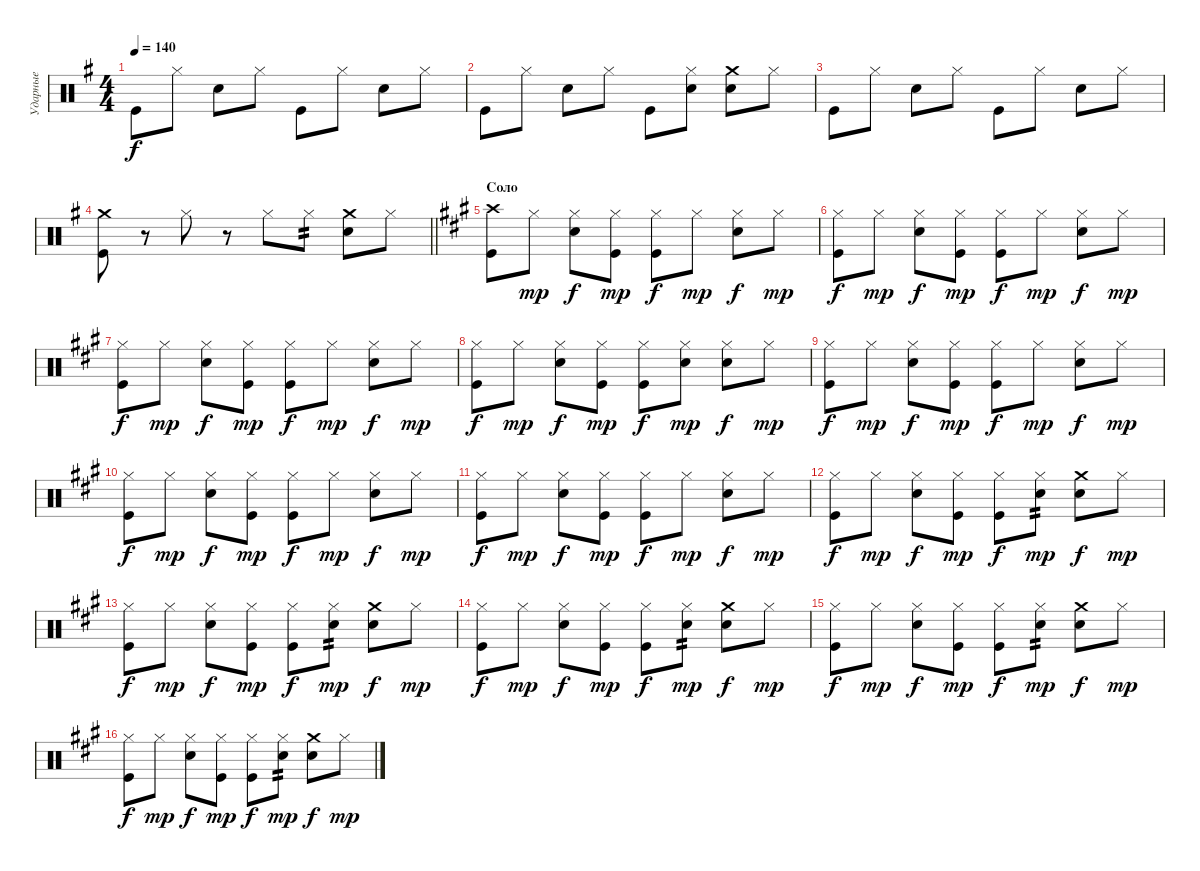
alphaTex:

\track ("Ударные" "Ударные") {instrument percussion}
\staff {score}
\articulation defaults
\ts (4 4)
\tempo 140
\clef neutral
\ks eminor "Kick (hit)".8{dy f} "Hi-Hat (closed)".8 "Snare (hit) 2".8 "Hi-Hat (closed)".8 "Kick (hit)".8 "Hi-Hat (closed)".8 "Snare (hit) 2".8 "Hi-Hat (closed)".8
|
"Kick (hit)".8 "Hi-Hat (closed)".8 "Snare (hit) 2".8 "Hi-Hat (closed)".8 "Kick (hit)".8 ("Hi-Hat (closed)" "Snare (hit) 2").8 ("Crash medium (hit)" "Snare (hit) 2").8 "Hi-Hat (closed)".8 |
"Kick (hit)".8 "Hi-Hat (closed)".8 "Snare (hit) 2".8 "Hi-Hat (closed)".8 "Kick (hit)".8 "Hi-Hat (closed)".8 "Snare (hit) 2".8 "Hi-Hat (closed)".8 |
\barLineRight lightlight
("Crash medium (hit)" "Kick (hit)").8 r.8 "Hi-Hat (closed)".8 r.8 "Hi-Hat (closed)".8 "Hi-Hat (closed)".8{tp 2} ("Crash medium (hit)" "Snare (hit) 2").8 "Hi-Hat (closed)".8 |
\section ("" "Соло")
\ks a
("Crash high (hit)" "Kick (hit)").8 "Hi-Hat (closed)".8{dy mp} ("Hi-Hat (closed)" "Snare (hit) 2").8{dy f} ("Hi-Hat (closed)" "Kick (hit)").8{dy mp} ("Hi-Hat (closed)" "Kick (hit)").8{dy f} "Hi-Hat (closed)".8{dy mp} ("Hi-Hat (closed)" "Snare (hit) 2").8{dy f} "Hi-Hat (closed)".8{dy mp} |
("Hi-Hat (closed)" "Kick (hit)").8{dy f} "Hi-Hat (closed)".8{dy mp} ("Hi-Hat (closed)" "Snare (hit) 2").8{dy f} ("Hi-Hat (closed)" "Kick (hit)").8{dy mp} ("Hi-Hat (closed)" "Kick (hit)").8{dy f} "Hi-Hat (closed)".8{dy mp} ("Hi-Hat (closed)" "Snare (hit) 2").8{dy f} "Hi-Hat (closed)".8{dy mp} |
("Hi-Hat (closed)" "Kick (hit)").8{dy f} "Hi-Hat (closed)".8{dy mp} ("Hi-Hat (closed)" "Snare (hit) 2").8{dy f} ("Hi-Hat (closed)" "Kick (hit)").8{dy mp} ("Hi-Hat (closed)" "Kick (hit)").8{dy f} "Hi-Hat (closed)".8{dy mp} ("Hi-Hat (closed)" "Snare (hit) 2").8{dy f} "Hi-Hat (closed)".8{dy mp} |
("Hi-Hat (closed)" "Kick (hit)").8{dy f} "Hi-Hat (closed)".8{dy mp} ("Hi-Hat (closed)" "Snare (hit) 2").8{dy f} ("Hi-Hat (closed)" "Kick (hit)").8{dy mp} ("Hi-Hat (closed)" "Kick (hit)").8{dy f} ("Hi-Hat (closed)" "Snare (hit) 2").8{dy mp} ("Hi-Hat (closed)" "Snare (hit) 2").8{dy f} "Hi-Hat (closed)".8{dy mp} |
("Hi-Hat (closed)" "Kick (hit)").8{dy f} "Hi-Hat (closed)".8{dy mp} ("Hi-Hat (closed)" "Snare (hit) 2").8{dy f} ("Hi-Hat (closed)" "Kick (hit)").8{dy mp} ("Hi-Hat (closed)" "Kick (hit)").8{dy f} "Hi-Hat (closed)".8{dy mp} ("Hi-Hat (closed)" "Snare (hit) 2").8{dy f} "Hi-Hat (closed)".8{dy mp} |
("Hi-Hat (closed)" "Kick (hit)").8{dy f} "Hi-Hat (closed)".8{dy mp} ("Hi-Hat (closed)" "Snare (hit) 2").8{dy f} ("Hi-Hat (closed)" "Kick (hit)").8{dy mp} ("Hi-Hat (closed)" "Kick (hit)").8{dy f} "Hi-Hat (closed)".8{dy mp} ("Hi-Hat (closed)" "Snare (hit) 2").8{dy f} "Hi-Hat (closed)".8{dy mp} |
("Hi-Hat (closed)" "Kick (hit)").8{dy f} "Hi-Hat (closed)".8{dy mp} ("Hi-Hat (closed)" "Snare (hit) 2").8{dy f} ("Hi-Hat (closed)" "Kick (hit)").8{dy mp} ("Hi-Hat (closed)" "Kick (hit)").8{dy f} "Hi-Hat (closed)".8{dy mp} ("Hi-Hat (closed)" "Snare (hit) 2").8{dy f} "Hi-Hat (closed)".8{dy mp} |
("Hi-Hat (closed)" "Kick (hit)").8{dy f} "Hi-Hat (closed)".8{dy mp} ("Hi-Hat (closed)" "Snare (hit) 2").8{dy f} ("Hi-Hat (closed)" "Kick (hit)").8{dy mp} ("Hi-Hat (closed)" "Kick (hit)").8{dy f} ("Hi-Hat (closed)" "Snare (hit) 2").8{tp 2 dy mp} ("Crash medium (hit)" "Snare (hit) 2").8{dy f} "Hi-Hat (closed)".8{dy mp} |
("Hi-Hat (closed)" "Kick (hit)").8{dy f} "Hi-Hat (closed)".8{dy mp} ("Hi-Hat (closed)" "Snare (hit) 2").8{dy f} ("Hi-Hat (closed)" "Kick (hit)").8{dy mp} ("Hi-Hat (closed)" "Kick (hit)").8{dy f} ("Hi-Hat (closed)" "Snare (hit) 2").8{tp 2 dy mp} ("Crash medium (hit)" "Snare (hit) 2").8{dy f} "Hi-Hat (closed)".8{dy mp} |
("Hi-Hat (closed)" "Kick (hit)").8{dy f} "Hi-Hat (closed)".8{dy mp} ("Hi-Hat (closed)" "Snare (hit) 2").8{dy f} ("Hi-Hat (closed)" "Kick (hit)").8{dy mp} ("Hi-Hat (closed)" "Kick (hit)").8{dy f} ("Hi-Hat (closed)" "Snare (hit) 2").8{tp 2 dy mp} ("Crash medium (hit)" "Snare (hit) 2").8{dy f} "Hi-Hat (closed)".8{dy mp} |
("Hi-Hat (closed)" "Kick (hit)").8{dy f} "Hi-Hat (closed)".8{dy mp} ("Hi-Hat (closed)" "Snare (hit) 2").8{dy f} ("Hi-Hat (closed)" "Kick (hit)").8{dy mp} ("Hi-Hat (closed)" "Kick (hit)").8{dy f} ("Hi-Hat (closed)" "Snare (hit) 2").8{tp 2 dy mp} ("Crash medium (hit)" "Snare (hit) 2").8{dy f} "Hi-Hat (closed)".8{dy mp} |
("Hi-Hat (closed)" "Kick (hit)").8{dy f} "Hi-Hat (closed)".8{dy mp} ("Hi-Hat (closed)" "Snare (hit) 2").8{dy f} ("Hi-Hat (closed)" "Kick (hit)").8{dy mp} ("Hi-Hat (closed)" "Kick (hit)").8{dy f} ("Hi-Hat (closed)" "Snare (hit) 2").8{tp 2 dy mp} ("Crash medium (hit)" "Snare (hit) 2").8{dy f} "Hi-Hat (closed)".8{dy mp}
